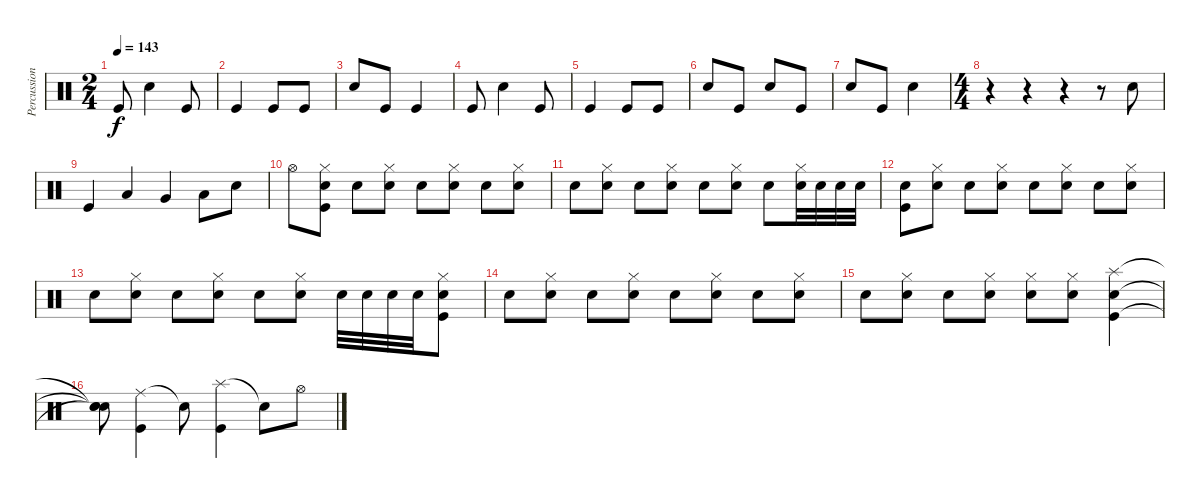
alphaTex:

\track ("Percussion" "Percussion") {instrument percussion}
\staff {score}
\articulation defaults
\ts (2 4)
\tempo 143
\clef neutral
\ks c "Kick (hit)".8{dy f} "Electric Snare (hit)".4 "Kick (hit)".8
|
"Kick (hit)".4 "Kick (hit)".8 "Kick (hit)".8 |
"Electric Snare (hit)".8 "Kick (hit)".8 "Kick (hit)".4 |
"Kick (hit)".8 "Electric Snare (hit)".4 "Kick (hit)".8 |
"Kick (hit)".4 "Kick (hit)".8 "Kick (hit)".8 |
"Electric Snare (hit)".8 "Kick (hit)".8 "Electric Snare (hit)".8 "Kick (hit)".8 |
"Electric Snare (hit)".8 "Kick (hit)".8 "Electric Snare (hit)".4 |
\ts (4 4)
r.4 r.4 r.4 r.8 "Electric Snare (hit)".8 |
"Kick (hit)".4 "Low Tom (hit)".4 "Very Low Tom (hit)".4 "Low Floor Tom (hit)".8 "Electric Snare (hit)".8 |
"Hi-Hat (open)".8{volume 8} ("Hi-Hat (closed)" "Electric Snare (hit)" "Kick (hit)").8{volume 10} "Electric Snare (hit)".8{volume 8} ("Hi-Hat (closed)" "Electric Snare (hit)").8 "Electric Snare (hit)".8 ("Hi-Hat (closed)" "Electric Snare (hit)").8{volume 10} "Electric Snare (hit)".8{volume 8} ("Hi-Hat (closed)" "Electric Snare (hit)").8 |
"Electric Snare (hit)".8 ("Hi-Hat (closed)" "Electric Snare (hit)").8 "Electric Snare (hit)".8{volume 10} ("Hi-Hat (closed)" "Electric Snare (hit)").8{volume 8} "Electric Snare (hit)".8 ("Hi-Hat (closed)" "Electric Snare (hit)").8{volume 10} "Electric Snare (hit)".8{volume 8} ("Hi-Hat (closed)" "Electric Snare (hit)").32{volume 7} "Electric Snare (hit)".32 "Electric Snare (hit)".32 "Electric Snare (hit)".32 |
("Electric Snare (hit)" "Kick (hit)").8{volume 10} ("Hi-Hat (closed)" "Electric Snare (hit)").8{volume 8} "Electric Snare (hit)".8 ("Hi-Hat (closed)" "Electric Snare (hit)").8 "Electric Snare (hit)".8{volume 10} ("Hi-Hat (closed)" "Electric Snare (hit)").8{volume 8} "Electric Snare (hit)".8 ("Hi-Hat (closed)" "Electric Snare (hit)").8 |
"Electric Snare (hit)".8 ("Hi-Hat (closed)" "Electric Snare (hit)").8{volume 10} "Electric Snare (hit)".8{volume 8} ("Hi-Hat (closed)" "Electric Snare (hit)").8 "Electric Snare (hit)".8{volume 10} ("Hi-Hat (closed)" "Electric Snare (hit)").8{volume 8} "Electric Snare (hit)".32{volume 7} "Electric Snare (hit)".32 "Electric Snare (hit)".32 "Electric Snare (hit)".32 ("Hi-Hat (closed)" "Electric Snare (hit)" "Kick (hit)").8 |
"Electric Snare (hit)".8{volume 8} ("Hi-Hat (closed)" "Electric Snare (hit)").8 "Electric Snare (hit)".8 ("Hi-Hat (closed)" "Electric Snare (hit)").8{volume 10} "Electric Snare (hit)".8{volume 8} ("Hi-Hat (closed)" "Electric Snare (hit)").8 "Electric Snare (hit)".8 ("Hi-Hat (closed)" "Electric Snare (hit)").8 |
"Electric Snare (hit)".8{volume 10} ("Hi-Hat (closed)" "Electric Snare (hit)").8{volume 8} "Electric Snare (hit)".8 ("Hi-Hat (closed)" "Electric Snare (hit)").8{volume 10} ("Hi-Hat (closed)" "Electric Snare (hit)").8{volume 8} ("Hi-Hat (closed)" "Electric Snare (hit)").8{volume 10} ("Splash (hit)" "Electric Snare (hit)" "Kick (hit)").4 |
("Snare (hit)"{t} "Snare (hit)"{t} "Snare (hit)"{t}).8 ("Ride (middle)" "Kick (hit)").4 "Snare (hit)"{t}.8 ("Splash (hit)" "Kick (hit)").4 "Snare (hit)"{t}.8 "Hi-Hat (open)".8{volume 10}
